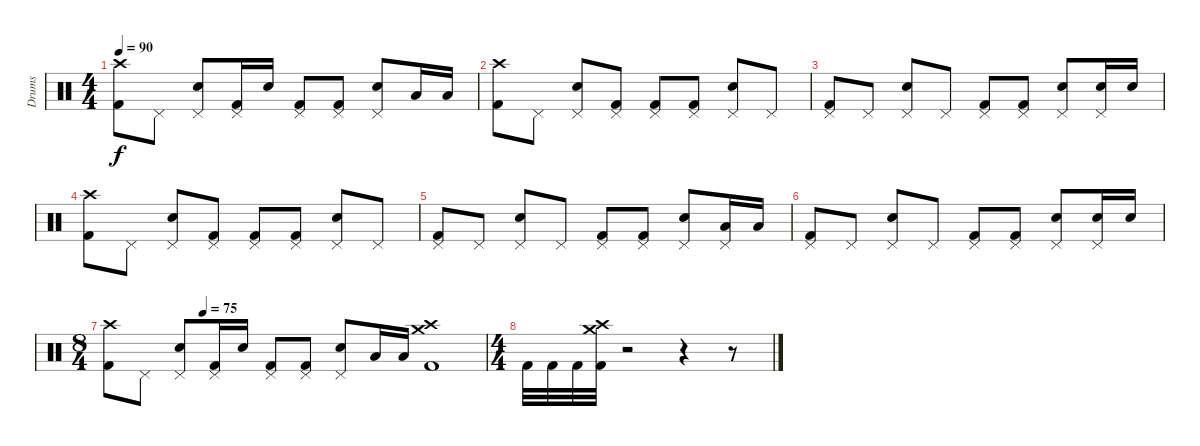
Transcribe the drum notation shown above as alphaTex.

\track ("Drums" "Drums") {instrument percussion}
\staff {score}
\articulation defaults
\ts (4 4)
\tempo 90
\clef neutral
\ks c
("Crash high (hit)" "Kick (hit) 2").8{dy f} "Pedal Hi-Hat (hit)".8 ("Pedal Hi-Hat (hit)" "Snare (hit) 2").8 ("Pedal Hi-Hat (hit)" "Kick (hit) 2").16 "Snare (hit) 2".16 ("Pedal Hi-Hat (hit)" "Kick (hit) 2").8 ("Pedal Hi-Hat (hit)" "Kick (hit) 2").8 ("Pedal Hi-Hat (hit)" "Snare (hit) 2").8 "Low Tom (hit)".16 "Low Tom (hit)".16 |
("Crash high (hit)" "Kick (hit) 2").8 "Pedal Hi-Hat (hit)".8 ("Pedal Hi-Hat (hit)" "Snare (hit) 2").8 ("Pedal Hi-Hat (hit)" "Kick (hit) 2").8 ("Pedal Hi-Hat (hit)" "Kick (hit) 2").8 ("Pedal Hi-Hat (hit)" "Kick (hit) 2").8 ("Pedal Hi-Hat (hit)" "Snare (hit) 2").8 "Pedal Hi-Hat (hit)".8 |
("Pedal Hi-Hat (hit)" "Kick (hit) 2").8 "Pedal Hi-Hat (hit)".8 ("Pedal Hi-Hat (hit)" "Snare (hit) 2").8 "Pedal Hi-Hat (hit)".8 ("Pedal Hi-Hat (hit)" "Kick (hit) 2").8 ("Pedal Hi-Hat (hit)" "Kick (hit) 2").8 ("Pedal Hi-Hat (hit)" "Snare (hit) 2").8 ("Pedal Hi-Hat (hit)" "Snare (hit) 2").16 "Snare (hit) 2".16 |
("Crash high (hit)" "Kick (hit) 2").8 "Pedal Hi-Hat (hit)".8 ("Pedal Hi-Hat (hit)" "Snare (hit) 2").8 ("Pedal Hi-Hat (hit)" "Kick (hit) 2").8 ("Pedal Hi-Hat (hit)" "Kick (hit) 2").8 ("Pedal Hi-Hat (hit)" "Kick (hit) 2").8 ("Pedal Hi-Hat (hit)" "Snare (hit) 2").8 "Pedal Hi-Hat (hit)".8 |
("Pedal Hi-Hat (hit)" "Kick (hit) 2").8 "Pedal Hi-Hat (hit)".8 ("Pedal Hi-Hat (hit)" "Snare (hit) 2").8 "Pedal Hi-Hat (hit)".8 ("Pedal Hi-Hat (hit)" "Kick (hit) 2").8 ("Pedal Hi-Hat (hit)" "Kick (hit) 2").8 ("Pedal Hi-Hat (hit)" "Snare (hit) 2").8 ("Pedal Hi-Hat (hit)" "Low Tom (hit)").16 "Low Tom (hit)".16 |
("Pedal Hi-Hat (hit)" "Kick (hit) 2").8 "Pedal Hi-Hat (hit)".8 ("Pedal Hi-Hat (hit)" "Snare (hit) 2").8 "Pedal Hi-Hat (hit)".8 ("Pedal Hi-Hat (hit)" "Kick (hit) 2").8 ("Pedal Hi-Hat (hit)" "Kick (hit) 2").8 ("Pedal Hi-Hat (hit)" "Snare (hit) 2").8 ("Pedal Hi-Hat (hit)" "Snare (hit) 2").16 "Snare (hit) 2".16 |
\ts (8 4)
\tempo (75 0.25)
("Crash high (hit)" "Kick (hit) 2").8 "Pedal Hi-Hat (hit)".8 ("Pedal Hi-Hat (hit)" "Snare (hit) 2").8 ("Pedal Hi-Hat (hit)" "Kick (hit) 2").16 "Snare (hit) 2".16 ("Pedal Hi-Hat (hit)" "Kick (hit) 2").8 ("Pedal Hi-Hat (hit)" "Kick (hit) 2").8 ("Pedal Hi-Hat (hit)" "Snare (hit) 2").8 "Low Tom (hit)".16 "Low Tom (hit)".16 ("Crash medium (hit)" "Crash high (hit)" "Kick (hit) 2").1 |
\ts (4 4)
"Kick (hit) 2".32 "Kick (hit) 2".32 "Kick (hit) 2".32 ("Crash medium (hit)" "Crash high (hit)" "Kick (hit) 2").32 r.2 r.4 r.8
